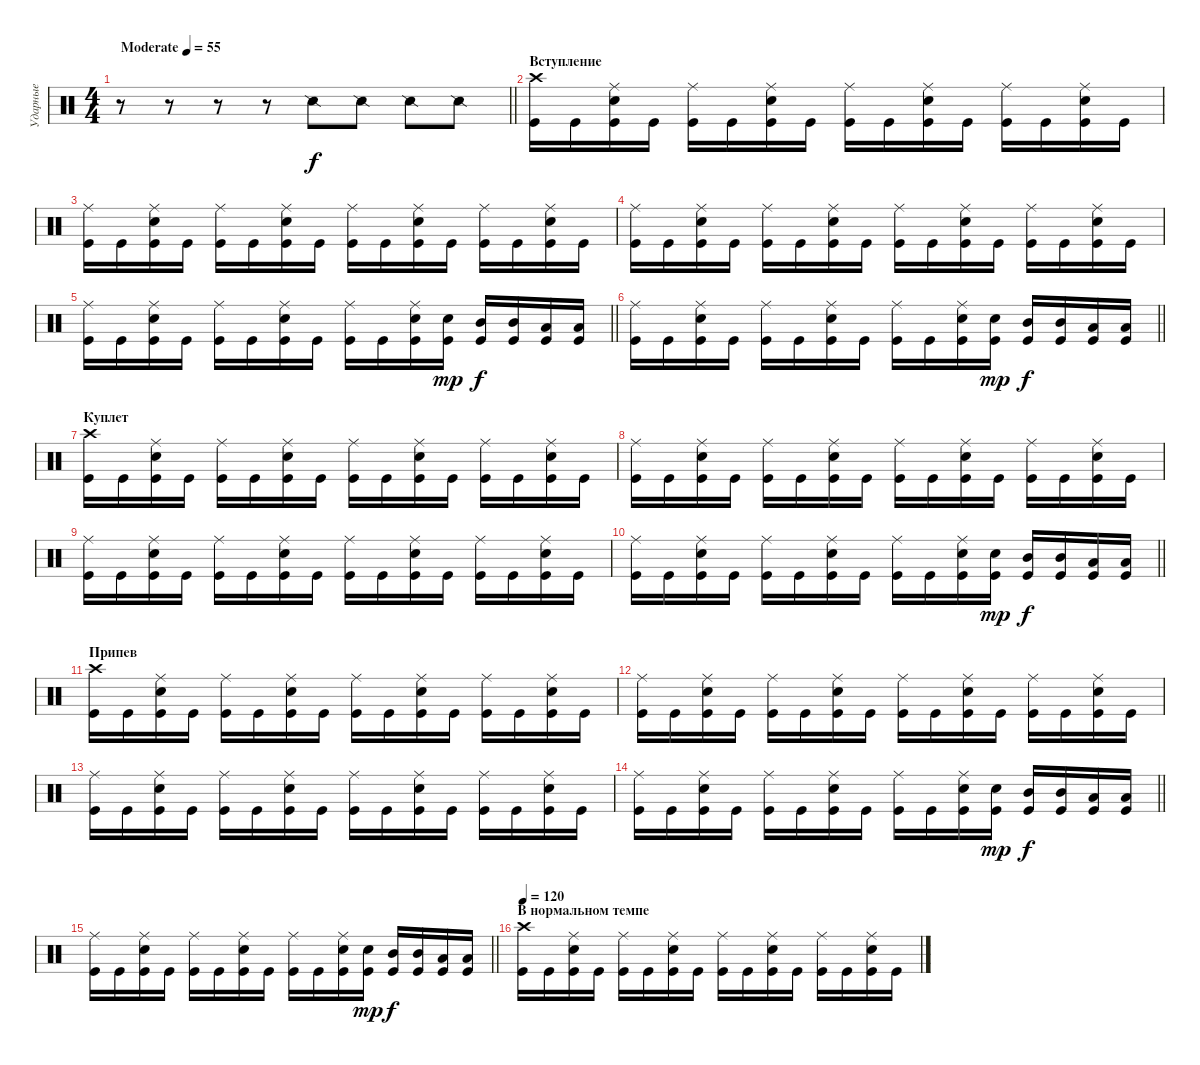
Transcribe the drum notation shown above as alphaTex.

\track ("Ударные" "Ударные") {instrument percussion}
\staff {score}
\articulation defaults
\ts (4 4)
\tempo (55 "Moderate")
\clef neutral
\barLineRight lightlight
\ks c
r.8{dy f} r.8 r.8 r.8 "Snare (side stick) 2".8 "Snare (side stick) 2".8 "Snare (side stick) 2".8 "Snare (side stick) 2".8 |
\section ("" "Вступление")
("Crash high (hit)" "Kick (hit)").16 "Kick (hit)".16 ("Ride (middle)" "Electric Snare (hit)" "Kick (hit)").16 "Kick (hit)".16 ("Ride (middle)" "Kick (hit)").16 "Kick (hit)".16 ("Ride (middle)" "Electric Snare (hit)" "Kick (hit)").16 "Kick (hit)".16 ("Ride (middle)" "Kick (hit)").16 "Kick (hit)".16 ("Ride (middle)" "Electric Snare (hit)" "Kick (hit)").16 "Kick (hit)".16 ("Ride (middle)" "Kick (hit)").16 "Kick (hit)".16 ("Ride (middle)" "Electric Snare (hit)" "Kick (hit)").16 "Kick (hit)".16 |
("Ride (middle)" "Kick (hit)").16 "Kick (hit)".16 ("Ride (middle)" "Electric Snare (hit)" "Kick (hit)").16 "Kick (hit)".16 ("Ride (middle)" "Kick (hit)").16 "Kick (hit)".16 ("Ride (middle)" "Electric Snare (hit)" "Kick (hit)").16 "Kick (hit)".16 ("Ride (middle)" "Kick (hit)").16 "Kick (hit)".16 ("Ride (middle)" "Electric Snare (hit)" "Kick (hit)").16 "Kick (hit)".16 ("Ride (middle)" "Kick (hit)").16 "Kick (hit)".16 ("Ride (middle)" "Electric Snare (hit)" "Kick (hit)").16 "Kick (hit)".16 |
("Ride (middle)" "Kick (hit)").16 "Kick (hit)".16 ("Ride (middle)" "Electric Snare (hit)" "Kick (hit)").16 "Kick (hit)".16 ("Ride (middle)" "Kick (hit)").16 "Kick (hit)".16 ("Ride (middle)" "Electric Snare (hit)" "Kick (hit)").16 "Kick (hit)".16 ("Ride (middle)" "Kick (hit)").16 "Kick (hit)".16 ("Ride (middle)" "Electric Snare (hit)" "Kick (hit)").16 "Kick (hit)".16 ("Ride (middle)" "Kick (hit)").16 "Kick (hit)".16 ("Ride (middle)" "Electric Snare (hit)" "Kick (hit)").16 "Kick (hit)".16 |
\barLineRight lightlight
("Ride (middle)" "Kick (hit)").16 "Kick (hit)".16 ("Ride (middle)" "Electric Snare (hit)" "Kick (hit)").16 "Kick (hit)".16 ("Ride (middle)" "Kick (hit)").16 "Kick (hit)".16 ("Ride (middle)" "Electric Snare (hit)" "Kick (hit)").16 "Kick (hit)".16 ("Ride (middle)" "Kick (hit)").16 "Kick (hit)".16 ("Ride (middle)" "Electric Snare (hit)" "Kick (hit)").16 ("Electric Snare (hit)" "Kick (hit)").16{dy mp} ("Mid Tom (hit)" "Kick (hit)").16{dy f} ("Mid Tom (hit)" "Kick (hit)").16 ("Low Tom (hit)" "Kick (hit)").16 ("Low Tom (hit)" "Kick (hit)").16 |
\barLineRight lightlight
("Ride (middle)" "Kick (hit)").16 "Kick (hit)".16 ("Ride (middle)" "Electric Snare (hit)" "Kick (hit)").16 "Kick (hit)".16 ("Ride (middle)" "Kick (hit)").16 "Kick (hit)".16 ("Ride (middle)" "Electric Snare (hit)" "Kick (hit)").16 "Kick (hit)".16 ("Ride (middle)" "Kick (hit)").16 "Kick (hit)".16 ("Ride (middle)" "Electric Snare (hit)" "Kick (hit)").16 ("Electric Snare (hit)" "Kick (hit)").16{dy mp} ("Mid Tom (hit)" "Kick (hit)").16{dy f} ("Mid Tom (hit)" "Kick (hit)").16 ("Low Tom (hit)" "Kick (hit)").16 ("Low Tom (hit)" "Kick (hit)").16 |
\section ("" "Куплет")
("Crash high (hit)" "Kick (hit)").16 "Kick (hit)".16 ("Ride (middle)" "Electric Snare (hit)" "Kick (hit)").16 "Kick (hit)".16 ("Ride (middle)" "Kick (hit)").16 "Kick (hit)".16 ("Ride (middle)" "Electric Snare (hit)" "Kick (hit)").16 "Kick (hit)".16 ("Ride (middle)" "Kick (hit)").16 "Kick (hit)".16 ("Ride (middle)" "Electric Snare (hit)" "Kick (hit)").16 "Kick (hit)".16 ("Ride (middle)" "Kick (hit)").16 "Kick (hit)".16 ("Ride (middle)" "Electric Snare (hit)" "Kick (hit)").16 "Kick (hit)".16 |
("Ride (middle)" "Kick (hit)").16 "Kick (hit)".16 ("Ride (middle)" "Electric Snare (hit)" "Kick (hit)").16 "Kick (hit)".16 ("Ride (middle)" "Kick (hit)").16 "Kick (hit)".16 ("Ride (middle)" "Electric Snare (hit)" "Kick (hit)").16 "Kick (hit)".16 ("Ride (middle)" "Kick (hit)").16 "Kick (hit)".16 ("Ride (middle)" "Electric Snare (hit)" "Kick (hit)").16 "Kick (hit)".16 ("Ride (middle)" "Kick (hit)").16 "Kick (hit)".16 ("Ride (middle)" "Electric Snare (hit)" "Kick (hit)").16 "Kick (hit)".16 |
("Ride (middle)" "Kick (hit)").16 "Kick (hit)".16 ("Ride (middle)" "Electric Snare (hit)" "Kick (hit)").16 "Kick (hit)".16 ("Ride (middle)" "Kick (hit)").16 "Kick (hit)".16 ("Ride (middle)" "Electric Snare (hit)" "Kick (hit)").16 "Kick (hit)".16 ("Ride (middle)" "Kick (hit)").16 "Kick (hit)".16 ("Ride (middle)" "Electric Snare (hit)" "Kick (hit)").16 "Kick (hit)".16 ("Ride (middle)" "Kick (hit)").16 "Kick (hit)".16 ("Ride (middle)" "Electric Snare (hit)" "Kick (hit)").16 "Kick (hit)".16 |
\barLineRight lightlight
("Ride (middle)" "Kick (hit)").16 "Kick (hit)".16 ("Ride (middle)" "Electric Snare (hit)" "Kick (hit)").16 "Kick (hit)".16 ("Ride (middle)" "Kick (hit)").16 "Kick (hit)".16 ("Ride (middle)" "Electric Snare (hit)" "Kick (hit)").16 "Kick (hit)".16 ("Ride (middle)" "Kick (hit)").16 "Kick (hit)".16 ("Ride (middle)" "Electric Snare (hit)" "Kick (hit)").16 ("Electric Snare (hit)" "Kick (hit)").16{dy mp} ("Mid Tom (hit)" "Kick (hit)").16{dy f} ("Mid Tom (hit)" "Kick (hit)").16 ("Low Tom (hit)" "Kick (hit)").16 ("Low Tom (hit)" "Kick (hit)").16 |
\section ("" "Припев")
("Crash high (hit)" "Kick (hit)").16 "Kick (hit)".16 ("Ride (middle)" "Electric Snare (hit)" "Kick (hit)").16 "Kick (hit)".16 ("Ride (middle)" "Kick (hit)").16 "Kick (hit)".16 ("Ride (middle)" "Electric Snare (hit)" "Kick (hit)").16 "Kick (hit)".16 ("Ride (middle)" "Kick (hit)").16 "Kick (hit)".16 ("Ride (middle)" "Electric Snare (hit)" "Kick (hit)").16 "Kick (hit)".16 ("Ride (middle)" "Kick (hit)").16 "Kick (hit)".16 ("Ride (middle)" "Electric Snare (hit)" "Kick (hit)").16 "Kick (hit)".16 |
("Ride (middle)" "Kick (hit)").16 "Kick (hit)".16 ("Ride (middle)" "Electric Snare (hit)" "Kick (hit)").16 "Kick (hit)".16 ("Ride (middle)" "Kick (hit)").16 "Kick (hit)".16 ("Ride (middle)" "Electric Snare (hit)" "Kick (hit)").16 "Kick (hit)".16 ("Ride (middle)" "Kick (hit)").16 "Kick (hit)".16 ("Ride (middle)" "Electric Snare (hit)" "Kick (hit)").16 "Kick (hit)".16 ("Ride (middle)" "Kick (hit)").16 "Kick (hit)".16 ("Ride (middle)" "Electric Snare (hit)" "Kick (hit)").16 "Kick (hit)".16 |
("Ride (middle)" "Kick (hit)").16 "Kick (hit)".16 ("Ride (middle)" "Electric Snare (hit)" "Kick (hit)").16 "Kick (hit)".16 ("Ride (middle)" "Kick (hit)").16 "Kick (hit)".16 ("Ride (middle)" "Electric Snare (hit)" "Kick (hit)").16 "Kick (hit)".16 ("Ride (middle)" "Kick (hit)").16 "Kick (hit)".16 ("Ride (middle)" "Electric Snare (hit)" "Kick (hit)").16 "Kick (hit)".16 ("Ride (middle)" "Kick (hit)").16 "Kick (hit)".16 ("Ride (middle)" "Electric Snare (hit)" "Kick (hit)").16 "Kick (hit)".16 |
\barLineRight lightlight
("Ride (middle)" "Kick (hit)").16 "Kick (hit)".16 ("Ride (middle)" "Electric Snare (hit)" "Kick (hit)").16 "Kick (hit)".16 ("Ride (middle)" "Kick (hit)").16 "Kick (hit)".16 ("Ride (middle)" "Electric Snare (hit)" "Kick (hit)").16 "Kick (hit)".16 ("Ride (middle)" "Kick (hit)").16 "Kick (hit)".16 ("Ride (middle)" "Electric Snare (hit)" "Kick (hit)").16 ("Electric Snare (hit)" "Kick (hit)").16{dy mp} ("Mid Tom (hit)" "Kick (hit)").16{dy f} ("Mid Tom (hit)" "Kick (hit)").16 ("Low Tom (hit)" "Kick (hit)").16 ("Low Tom (hit)" "Kick (hit)").16 |
\barLineRight lightlight
("Ride (middle)" "Kick (hit)").16 "Kick (hit)".16 ("Ride (middle)" "Electric Snare (hit)" "Kick (hit)").16 "Kick (hit)".16 ("Ride (middle)" "Kick (hit)").16 "Kick (hit)".16 ("Ride (middle)" "Electric Snare (hit)" "Kick (hit)").16 "Kick (hit)".16 ("Ride (middle)" "Kick (hit)").16 "Kick (hit)".16 ("Ride (middle)" "Electric Snare (hit)" "Kick (hit)").16 ("Electric Snare (hit)" "Kick (hit)").16{dy mp} ("Mid Tom (hit)" "Kick (hit)").16{dy f} ("Mid Tom (hit)" "Kick (hit)").16 ("Low Tom (hit)" "Kick (hit)").16 ("Low Tom (hit)" "Kick (hit)").16 |
\section ("" "В нормальном темпе")
\tempo 120
("Crash high (hit)" "Kick (hit)").16 "Kick (hit)".16 ("Ride (middle)" "Electric Snare (hit)" "Kick (hit)").16 "Kick (hit)".16 ("Ride (middle)" "Kick (hit)").16 "Kick (hit)".16 ("Ride (middle)" "Electric Snare (hit)" "Kick (hit)").16 "Kick (hit)".16 ("Ride (middle)" "Kick (hit)").16 "Kick (hit)".16 ("Ride (middle)" "Electric Snare (hit)" "Kick (hit)").16 "Kick (hit)".16 ("Ride (middle)" "Kick (hit)").16 "Kick (hit)".16 ("Ride (middle)" "Electric Snare (hit)" "Kick (hit)").16 "Kick (hit)".16
